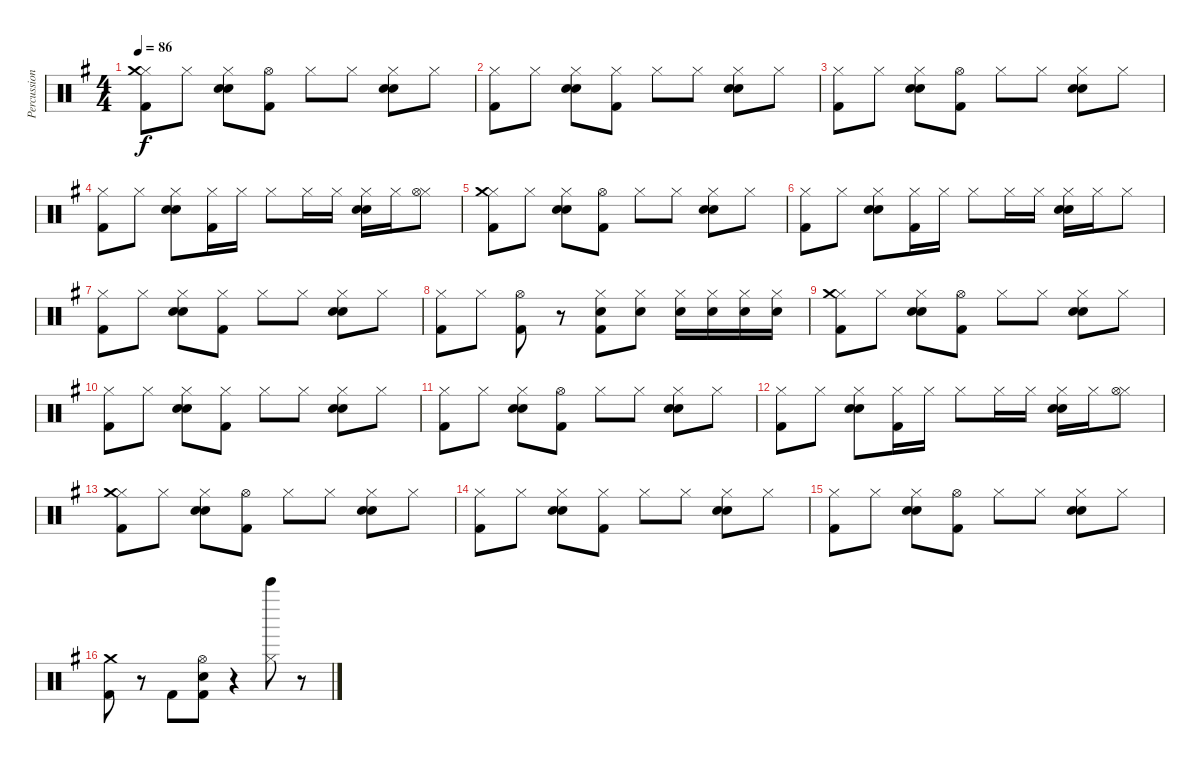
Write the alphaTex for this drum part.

\track ("Percussion" "Percussion") {instrument percussion}
\staff {score}
\articulation defaults
\ts (4 4)
\tempo 86
\clef neutral
\ks g
("Hi-Hat (closed)" "Crash medium (hit)" "Kick (hit) 2").8{dy f} "Hi-Hat (closed)".8 ("Hi-Hat (closed)" "Hand Clap (hit)" "Snare (hit) 2").8 ("Hi-Hat (open)" "Kick (hit) 2").8 "Hi-Hat (closed)".8 "Hi-Hat (closed)".8 ("Hi-Hat (closed)" "Snare (hit) 2" "Hand Clap (hit)").8 "Hi-Hat (closed)".8 |
("Hi-Hat (closed)" "Kick (hit) 2").8 "Hi-Hat (closed)".8 ("Hi-Hat (closed)" "Snare (hit) 2" "Hand Clap (hit)").8 ("Hi-Hat (closed)" "Kick (hit) 2").8 "Hi-Hat (closed)".8 "Hi-Hat (closed)".8 ("Hi-Hat (closed)" "Snare (hit) 2" "Hand Clap (hit)").8 "Hi-Hat (closed)".8 |
("Hi-Hat (closed)" "Kick (hit) 2").8 "Hi-Hat (closed)".8 ("Hi-Hat (closed)" "Hand Clap (hit)" "Snare (hit) 2").8 ("Hi-Hat (open)" "Kick (hit) 2").8 "Hi-Hat (closed)".8 "Hi-Hat (closed)".8 ("Hi-Hat (closed)" "Snare (hit) 2" "Hand Clap (hit)").8 "Hi-Hat (closed)".8 |
("Hi-Hat (closed)" "Kick (hit) 2").8 "Hi-Hat (closed)".8 ("Hi-Hat (closed)" "Snare (hit) 2" "Hand Clap (hit)").8 ("Hi-Hat (closed)" "Kick (hit) 2").16 "Hi-Hat (closed)".16 "Hi-Hat (closed)".8 "Hi-Hat (closed)".16 "Hi-Hat (closed)".16 ("Hi-Hat (closed)" "Snare (hit) 2" "Hand Clap (hit)").16 "Hi-Hat (closed)".16 ("Hi-Hat (closed)" "Hi-Hat (open)").8 |
("Hi-Hat (closed)" "Crash medium (hit)" "Kick (hit) 2").8 "Hi-Hat (closed)".8 ("Hi-Hat (closed)" "Hand Clap (hit)" "Snare (hit) 2").8 ("Hi-Hat (open)" "Kick (hit) 2").8 "Hi-Hat (closed)".8 "Hi-Hat (closed)".8 ("Hi-Hat (closed)" "Snare (hit) 2" "Hand Clap (hit)").8 "Hi-Hat (closed)".8 |
("Hi-Hat (closed)" "Kick (hit) 2").8 "Hi-Hat (closed)".8 ("Hi-Hat (closed)" "Snare (hit) 2" "Hand Clap (hit)").8 ("Hi-Hat (closed)" "Kick (hit) 2").16 "Hi-Hat (closed)".16 "Hi-Hat (closed)".8 "Hi-Hat (closed)".16 "Hi-Hat (closed)".16 ("Hi-Hat (closed)" "Snare (hit) 2" "Hand Clap (hit)").16 "Hi-Hat (closed)".16 "Hi-Hat (closed)".8 |
("Hi-Hat (closed)" "Kick (hit) 2").8 "Hi-Hat (closed)".8 ("Hi-Hat (closed)" "Snare (hit) 2" "Hand Clap (hit)").8 ("Hi-Hat (closed)" "Kick (hit) 2").8 "Hi-Hat (closed)".8 "Hi-Hat (closed)".8 ("Hi-Hat (closed)" "Snare (hit) 2" "Hand Clap (hit)").8 "Hi-Hat (closed)".8 |
("Hi-Hat (closed)" "Kick (hit) 2").8 "Hi-Hat (closed)".8 ("Hi-Hat (open)" "Kick (hit) 2").8 r.8 ("Hi-Hat (closed)" "Electric Snare (hit)" "Kick (hit) 2").8 ("Hi-Hat (closed)" "Snare (hit) 2").8 ("Hi-Hat (closed)" "Snare (hit) 2").16 ("Hi-Hat (closed)" "Snare (hit) 2").16 ("Hi-Hat (closed)" "Snare (hit) 2").16 ("Hi-Hat (closed)" "Electric Snare (hit)").16 |
("Hi-Hat (closed)" "Crash medium (hit)" "Kick (hit) 2").8 "Hi-Hat (closed)".8 ("Hi-Hat (closed)" "Hand Clap (hit)" "Snare (hit) 2").8 ("Hi-Hat (open)" "Kick (hit) 2").8 "Hi-Hat (closed)".8 "Hi-Hat (closed)".8 ("Hi-Hat (closed)" "Snare (hit) 2" "Hand Clap (hit)").8 "Hi-Hat (closed)".8 |
("Hi-Hat (closed)" "Kick (hit) 2").8 "Hi-Hat (closed)".8 ("Hi-Hat (closed)" "Snare (hit) 2" "Hand Clap (hit)").8 ("Hi-Hat (closed)" "Kick (hit) 2").8 "Hi-Hat (closed)".8 "Hi-Hat (closed)".8 ("Hi-Hat (closed)" "Snare (hit) 2" "Hand Clap (hit)").8 "Hi-Hat (closed)".8 |
("Hi-Hat (closed)" "Kick (hit) 2").8 "Hi-Hat (closed)".8 ("Hi-Hat (closed)" "Hand Clap (hit)" "Snare (hit) 2").8 ("Hi-Hat (open)" "Kick (hit) 2").8 "Hi-Hat (closed)".8 "Hi-Hat (closed)".8 ("Hi-Hat (closed)" "Snare (hit) 2" "Hand Clap (hit)").8 "Hi-Hat (closed)".8 |
("Hi-Hat (closed)" "Kick (hit) 2").8 "Hi-Hat (closed)".8 ("Hi-Hat (closed)" "Snare (hit) 2" "Hand Clap (hit)").8 ("Hi-Hat (closed)" "Kick (hit) 2").16 "Hi-Hat (closed)".16 "Hi-Hat (closed)".8 "Hi-Hat (closed)".16 "Hi-Hat (closed)".16 ("Hi-Hat (closed)" "Snare (hit) 2" "Hand Clap (hit)").16 "Hi-Hat (closed)".16 ("Hi-Hat (closed)" "Hi-Hat (open)").8 |
("Hi-Hat (closed)" "Crash medium (hit)" "Kick (hit) 2").8 "Hi-Hat (closed)".8 ("Hi-Hat (closed)" "Hand Clap (hit)" "Snare (hit) 2").8 ("Hi-Hat (open)" "Kick (hit) 2").8 "Hi-Hat (closed)".8 "Hi-Hat (closed)".8 ("Hi-Hat (closed)" "Snare (hit) 2" "Hand Clap (hit)").8 "Hi-Hat (closed)".8 |
("Hi-Hat (closed)" "Kick (hit) 2").8 "Hi-Hat (closed)".8 ("Hi-Hat (closed)" "Snare (hit) 2" "Hand Clap (hit)").8 ("Hi-Hat (closed)" "Kick (hit) 2").8 "Hi-Hat (closed)".8 "Hi-Hat (closed)".8 ("Hi-Hat (closed)" "Snare (hit) 2" "Hand Clap (hit)").8 "Hi-Hat (closed)".8 |
("Hi-Hat (closed)" "Kick (hit) 2").8 "Hi-Hat (closed)".8 ("Hi-Hat (closed)" "Hand Clap (hit)" "Snare (hit) 2").8 ("Hi-Hat (open)" "Kick (hit) 2").8 "Hi-Hat (closed)".8 "Hi-Hat (closed)".8 ("Hi-Hat (closed)" "Snare (hit) 2" "Hand Clap (hit)").8 "Hi-Hat (closed)".8 |
("Crash medium (hit)" "Kick (hit) 2").8 r.8 "Kick (hit) 2".8 ("Hi-Hat (open)" "Snare (hit) 2" "Kick (hit) 2").8 r.4 ("Hi-Hat (closed)" "Bell Tree (hit)").8 r.8
